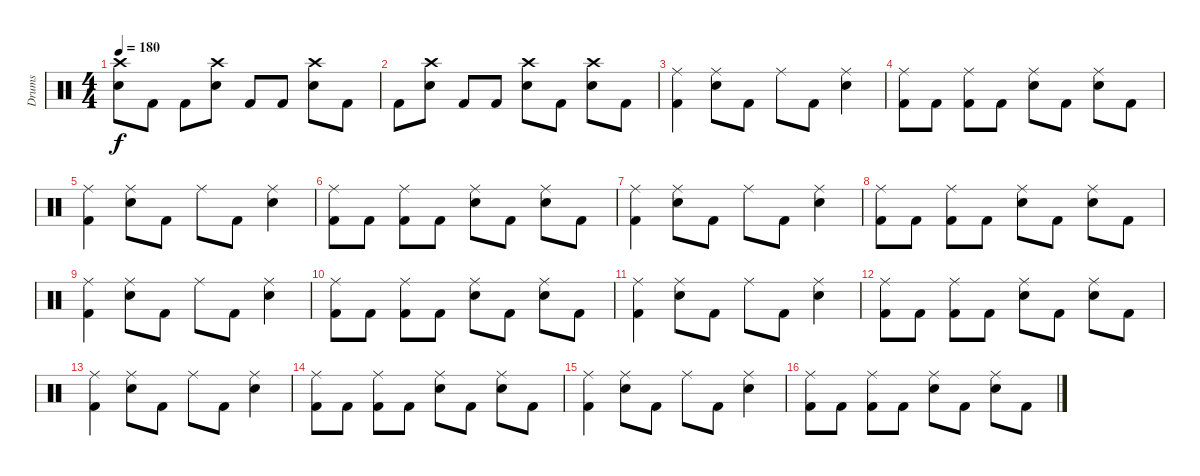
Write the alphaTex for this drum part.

\track ("Drums" "Drums") {instrument percussion}
\staff {score}
\articulation defaults
\ts (4 4)
\tempo 180
\clef neutral
\ks c
("Crash high (hit)" "Electric Snare (hit)").8{dy f} "Kick (hit) 2".8 "Kick (hit) 2".8 ("Crash high (hit)" "Electric Snare (hit)").8 "Kick (hit) 2".8 "Kick (hit) 2".8 ("Crash high (hit)" "Electric Snare (hit)").8 "Kick (hit) 2".8 |
"Kick (hit) 2".8 ("Crash high (hit)" "Electric Snare (hit)").8 "Kick (hit) 2".8 "Kick (hit) 2".8 ("Crash high (hit)" "Electric Snare (hit)").8 "Kick (hit) 2".8 ("Crash high (hit)" "Electric Snare (hit)").8 "Kick (hit) 2".8 |
("Ride (middle)" "Kick (hit) 2").4 ("Ride (middle)" "Electric Snare (hit)").8 "Kick (hit) 2".8 "Ride (middle)".8 "Kick (hit) 2".8 ("Ride (middle)" "Electric Snare (hit)").4 |
("Ride (middle)" "Kick (hit) 2").8 "Kick (hit) 2".8 ("Ride (middle)" "Kick (hit) 2").8 "Kick (hit) 2".8 ("Ride (middle)" "Electric Snare (hit)").8 "Kick (hit) 2".8 ("Ride (middle)" "Electric Snare (hit)").8 "Kick (hit) 2".8 |
("Ride (middle)" "Kick (hit) 2").4 ("Ride (middle)" "Electric Snare (hit)").8 "Kick (hit) 2".8 "Ride (middle)".8 "Kick (hit) 2".8 ("Ride (middle)" "Electric Snare (hit)").4 |
("Ride (middle)" "Kick (hit) 2").8 "Kick (hit) 2".8 ("Ride (middle)" "Kick (hit) 2").8 "Kick (hit) 2".8 ("Ride (middle)" "Electric Snare (hit)").8 "Kick (hit) 2".8 ("Ride (middle)" "Electric Snare (hit)").8 "Kick (hit) 2".8 |
("Ride (middle)" "Kick (hit) 2").4 ("Ride (middle)" "Electric Snare (hit)").8 "Kick (hit) 2".8 "Ride (middle)".8 "Kick (hit) 2".8 ("Ride (middle)" "Electric Snare (hit)").4 |
("Ride (middle)" "Kick (hit) 2").8 "Kick (hit) 2".8 ("Ride (middle)" "Kick (hit) 2").8 "Kick (hit) 2".8 ("Ride (middle)" "Electric Snare (hit)").8 "Kick (hit) 2".8 ("Ride (middle)" "Electric Snare (hit)").8 "Kick (hit) 2".8 |
("Ride (middle)" "Kick (hit) 2").4 ("Ride (middle)" "Electric Snare (hit)").8 "Kick (hit) 2".8 "Ride (middle)".8 "Kick (hit) 2".8 ("Ride (middle)" "Electric Snare (hit)").4 |
("Ride (middle)" "Kick (hit) 2").8 "Kick (hit) 2".8 ("Ride (middle)" "Kick (hit) 2").8 "Kick (hit) 2".8 ("Ride (middle)" "Electric Snare (hit)").8 "Kick (hit) 2".8 ("Ride (middle)" "Electric Snare (hit)").8 "Kick (hit) 2".8 |
("Ride (middle)" "Kick (hit) 2").4 ("Ride (middle)" "Electric Snare (hit)").8 "Kick (hit) 2".8 "Ride (middle)".8 "Kick (hit) 2".8 ("Ride (middle)" "Electric Snare (hit)").4 |
("Ride (middle)" "Kick (hit) 2").8 "Kick (hit) 2".8 ("Ride (middle)" "Kick (hit) 2").8 "Kick (hit) 2".8 ("Ride (middle)" "Electric Snare (hit)").8 "Kick (hit) 2".8 ("Ride (middle)" "Electric Snare (hit)").8 "Kick (hit) 2".8 |
("Ride (middle)" "Kick (hit) 2").4 ("Ride (middle)" "Electric Snare (hit)").8 "Kick (hit) 2".8 "Ride (middle)".8 "Kick (hit) 2".8 ("Ride (middle)" "Electric Snare (hit)").4 |
("Ride (middle)" "Kick (hit) 2").8 "Kick (hit) 2".8 ("Ride (middle)" "Kick (hit) 2").8 "Kick (hit) 2".8 ("Ride (middle)" "Electric Snare (hit)").8 "Kick (hit) 2".8 ("Ride (middle)" "Electric Snare (hit)").8 "Kick (hit) 2".8 |
("Ride (middle)" "Kick (hit) 2").4 ("Ride (middle)" "Electric Snare (hit)").8 "Kick (hit) 2".8 "Ride (middle)".8 "Kick (hit) 2".8 ("Ride (middle)" "Electric Snare (hit)").4 |
("Ride (middle)" "Kick (hit) 2").8 "Kick (hit) 2".8 ("Ride (middle)" "Kick (hit) 2").8 "Kick (hit) 2".8 ("Ride (middle)" "Electric Snare (hit)").8 "Kick (hit) 2".8 ("Ride (middle)" "Electric Snare (hit)").8 "Kick (hit) 2".8
